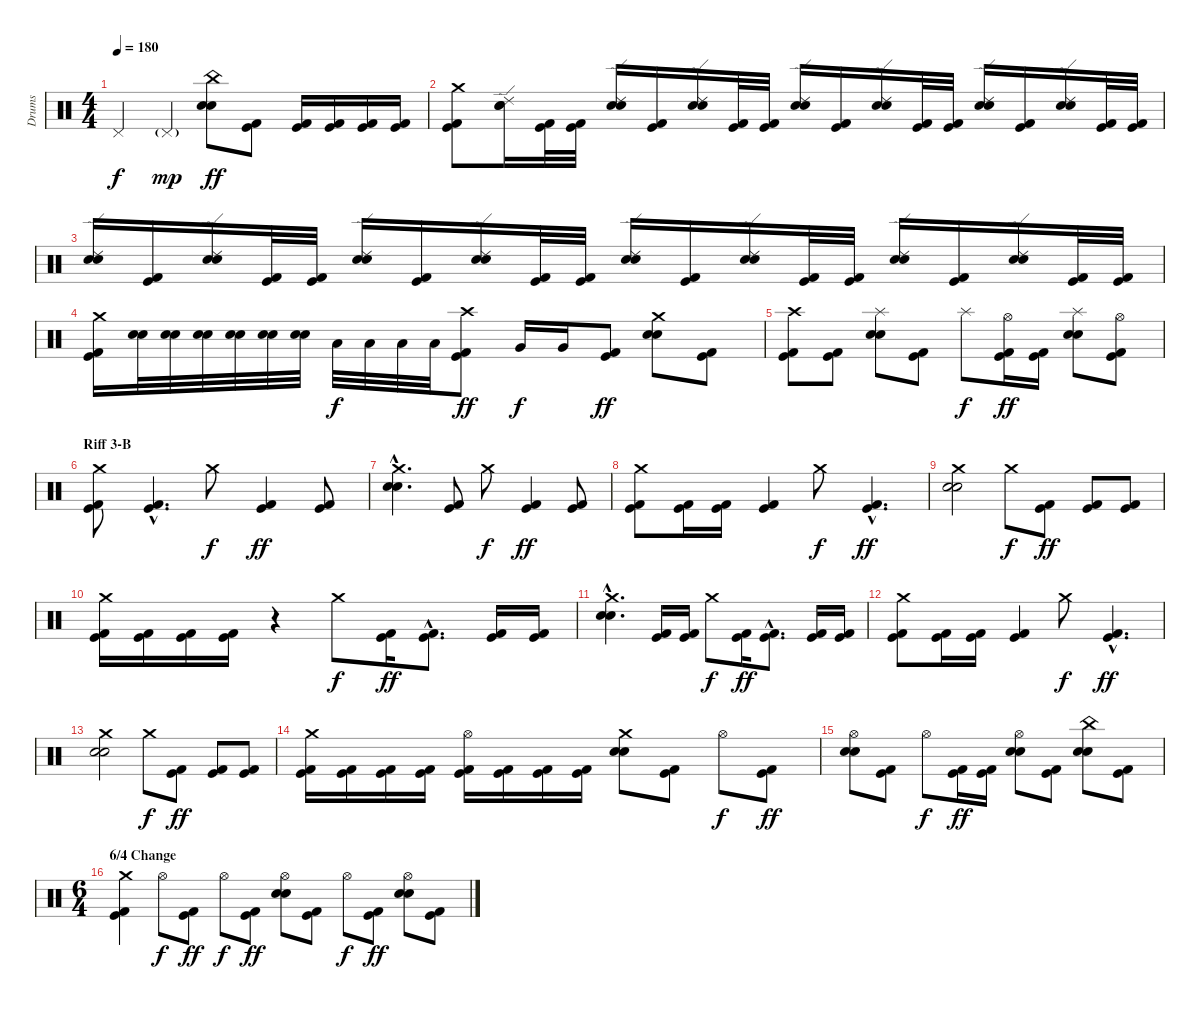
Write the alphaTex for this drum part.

\track ("Drums" "Drums") {instrument percussion}
\staff {score}
\articulation defaults
\ts (4 4)
\tempo 180
\clef neutral
\ks c "Pedal Hi-Hat (hit)".4{dy f} "Pedal Hi-Hat (hit)"{g}.4{dy mp}
("Electric Snare (hit)" "Electric Snare (hit)" "China (hit)").8{dy ff} ("Kick (hit)" "Kick (hit) 2").8 ("Kick (hit)" "Kick (hit) 2").16 ("Kick (hit)" "Kick (hit) 2").16 ("Kick (hit)" "Kick (hit) 2").16 ("Kick (hit)" "Kick (hit) 2").16 |
("Kick (hit)" "Kick (hit) 2" "Crash medium (hit)").8 ("Electric Snare (hit)" "Electric Snare (hit)" "Ride (edge) 2").16 ("Kick (hit)" "Kick (hit) 2").32 ("Kick (hit)" "Kick (hit) 2").32 ("Electric Snare (hit)" "Electric Snare (hit)" "Ride (edge) 2").16 ("Kick (hit)" "Kick (hit) 2").16 ("Electric Snare (hit)" "Electric Snare (hit)" "Ride (edge) 2").16 ("Kick (hit)" "Kick (hit) 2").32 ("Kick (hit)" "Kick (hit) 2").32 ("Electric Snare (hit)" "Electric Snare (hit)" "Ride (edge) 2").16 ("Kick (hit)" "Kick (hit) 2").16 ("Electric Snare (hit)" "Electric Snare (hit)" "Ride (edge) 2").16 ("Kick (hit)" "Kick (hit) 2").32 ("Kick (hit)" "Kick (hit) 2").32 ("Electric Snare (hit)" "Electric Snare (hit)" "Ride (edge) 2").16 ("Kick (hit)" "Kick (hit) 2").16 ("Electric Snare (hit)" "Electric Snare (hit)" "Ride (edge) 2").16 ("Kick (hit)" "Kick (hit) 2").32 ("Kick (hit)" "Kick (hit) 2").32 |
("Electric Snare (hit)" "Electric Snare (hit)" "Ride (edge) 2").16 ("Kick (hit)" "Kick (hit) 2").16 ("Electric Snare (hit)" "Electric Snare (hit)" "Ride (edge) 2").16 ("Kick (hit)" "Kick (hit) 2").32 ("Kick (hit)" "Kick (hit) 2").32 ("Electric Snare (hit)" "Electric Snare (hit)" "Ride (edge) 2").16 ("Kick (hit)" "Kick (hit) 2").16 ("Electric Snare (hit)" "Electric Snare (hit)" "Ride (edge) 2").16 ("Kick (hit)" "Kick (hit) 2").32 ("Kick (hit)" "Kick (hit) 2").32 ("Electric Snare (hit)" "Electric Snare (hit)" "Ride (edge) 2").16 ("Kick (hit)" "Kick (hit) 2").16 ("Electric Snare (hit)" "Electric Snare (hit)" "Ride (edge) 2").16 ("Kick (hit)" "Kick (hit) 2").32 ("Kick (hit)" "Kick (hit) 2").32 ("Electric Snare (hit)" "Electric Snare (hit)" "Ride (edge) 2").16 ("Kick (hit)" "Kick (hit) 2").16 ("Electric Snare (hit)" "Electric Snare (hit)" "Ride (edge) 2").16 ("Kick (hit)" "Kick (hit) 2").32 ("Kick (hit)" "Kick (hit) 2").32 |
("Kick (hit)" "Kick (hit) 2" "Crash medium (hit)").16 ("Electric Snare (hit)" "Electric Snare (hit)").32 ("Electric Snare (hit)" "Electric Snare (hit)").32 ("Electric Snare (hit)" "Electric Snare (hit)").32 ("Electric Snare (hit)" "Electric Snare (hit)").32 ("Electric Snare (hit)" "Electric Snare (hit)").32 ("Electric Snare (hit)" "Electric Snare (hit)").32 "Low Tom (hit)".32{dy f} "Low Tom (hit)".32 "Low Tom (hit)".32 "Low Tom (hit)".32 ("Kick (hit)" "Kick (hit) 2" "Crash high (hit)").8{dy ff} "Very Low Tom (hit)".16{dy f} "Very Low Tom (hit)".16 ("Kick (hit)" "Kick (hit) 2").8{dy ff} ("Electric Snare (hit)" "Electric Snare (hit)" "Crash medium (hit)").8 ("Kick (hit)" "Kick (hit) 2").8 |
("Kick (hit)" "Kick (hit) 2" "Crash high (hit)").8 ("Kick (hit)" "Kick (hit) 2").8 ("Electric Snare (hit)" "Electric Snare (hit)" "Splash (hit)").8 ("Kick (hit)" "Kick (hit) 2").8 "Splash (hit)".8{dy f} ("Kick (hit)" "Kick (hit) 2" "Hi-Hat (open)").16{dy ff} ("Kick (hit)" "Kick (hit) 2").16 ("Electric Snare (hit)" "Electric Snare (hit)" "Splash (hit)").8 ("Kick (hit)" "Kick (hit) 2" "Hi-Hat (open)").8 |
\section ("" "Riff 3-B")
("Kick (hit)" "Kick (hit) 2" "Crash medium (hit)").8 ("Kick (hit)"{hac} "Kick (hit) 2"{hac}).4{d} "Crash medium (hit)".8{dy f} ("Kick (hit)" "Kick (hit) 2").4{dy ff} ("Kick (hit)" "Kick (hit) 2").8 |
("Electric Snare (hit)"{hac} "Electric Snare (hit)"{hac} "Crash medium (hit)"{hac}).4{d} ("Kick (hit)" "Kick (hit) 2").8 "Crash medium (hit)".8{dy f} ("Kick (hit)" "Kick (hit) 2").4{dy ff} ("Kick (hit)" "Kick (hit) 2").8 |
("Kick (hit)" "Kick (hit) 2" "Crash medium (hit)").8 ("Kick (hit)" "Kick (hit) 2").16 ("Kick (hit)" "Kick (hit) 2").16 ("Kick (hit)" "Kick (hit) 2").4 "Crash medium (hit)".8{dy f} ("Kick (hit)"{hac} "Kick (hit) 2"{hac}).4{d dy ff} |
("Electric Snare (hit)" "Electric Snare (hit)" "Crash medium (hit)").2 "Crash medium (hit)".8{dy f} ("Kick (hit)" "Kick (hit) 2").8{dy ff} ("Kick (hit)" "Kick (hit) 2").8 ("Kick (hit)" "Kick (hit) 2").8 |
("Kick (hit)" "Kick (hit) 2" "Crash medium (hit)").16 ("Kick (hit)" "Kick (hit) 2").16 ("Kick (hit)" "Kick (hit) 2").16 ("Kick (hit)" "Kick (hit) 2").16 r.4 "Crash medium (hit)".8{dy f} ("Kick (hit)" "Kick (hit) 2").16{dy ff} ("Kick (hit)"{hac} "Kick (hit) 2"{hac}).8{d} ("Kick (hit)" "Kick (hit) 2").16 ("Kick (hit)" "Kick (hit) 2").16 |
("Electric Snare (hit)"{hac} "Electric Snare (hit)"{hac} "Crash medium (hit)"{hac}).4{d} ("Kick (hit)" "Kick (hit) 2").16 ("Kick (hit)" "Kick (hit) 2").16 "Crash medium (hit)".8{dy f} ("Kick (hit)" "Kick (hit) 2").16{dy ff} ("Kick (hit)"{hac} "Kick (hit) 2"{hac}).8{d} ("Kick (hit)" "Kick (hit) 2").16 ("Kick (hit)" "Kick (hit) 2").16 |
("Kick (hit)" "Kick (hit) 2" "Crash medium (hit)").8 ("Kick (hit)" "Kick (hit) 2").16 ("Kick (hit)" "Kick (hit) 2").16 ("Kick (hit)" "Kick (hit) 2").4 "Crash medium (hit)".8{dy f} ("Kick (hit)"{hac} "Kick (hit) 2"{hac}).4{d dy ff} |
("Electric Snare (hit)" "Electric Snare (hit)" "Crash medium (hit)").2 "Crash medium (hit)".8{dy f} ("Kick (hit)" "Kick (hit) 2").8{dy ff} ("Kick (hit)" "Kick (hit) 2").8 ("Kick (hit)" "Kick (hit) 2").8 |
("Kick (hit)" "Kick (hit) 2" "Crash medium (hit)").16 ("Kick (hit)" "Kick (hit) 2").16 ("Kick (hit)" "Kick (hit) 2").16 ("Kick (hit)" "Kick (hit) 2").16 ("Kick (hit)" "Kick (hit) 2" "Hi-Hat (open)").16 ("Kick (hit)" "Kick (hit) 2").16 ("Kick (hit)" "Kick (hit) 2").16 ("Kick (hit)" "Kick (hit) 2").16 ("Electric Snare (hit)" "Electric Snare (hit)" "Crash medium (hit)").8 ("Kick (hit)" "Kick (hit) 2").8 "Hi-Hat (open)".8{dy f} ("Kick (hit)" "Kick (hit) 2").8{dy ff} |
("Electric Snare (hit)" "Electric Snare (hit)" "Hi-Hat (open)").8 ("Kick (hit)" "Kick (hit) 2").8 "Hi-Hat (open)".8{dy f} ("Kick (hit)" "Kick (hit) 2").16{dy ff} ("Kick (hit)" "Kick (hit) 2").16 ("Electric Snare (hit)" "Electric Snare (hit)" "Hi-Hat (open)").8 ("Kick (hit)" "Kick (hit) 2").8 ("Electric Snare (hit)" "Electric Snare (hit)" "China (hit)").8 ("Kick (hit)" "Kick (hit) 2").8 |
\ts (6 4)
\section ("" "6/4 Change")
("Kick (hit)" "Kick (hit) 2" "Crash medium (hit)").4 "Hi-Hat (open)".8{dy f} ("Kick (hit)" "Kick (hit) 2").8{dy ff} "Hi-Hat (open)".8{dy f} ("Kick (hit)" "Kick (hit) 2").8{dy ff} ("Electric Snare (hit)" "Electric Snare (hit)" "Hi-Hat (open)").8 ("Kick (hit)" "Kick (hit) 2").8 "Hi-Hat (open)".8{dy f} ("Kick (hit)" "Kick (hit) 2").8{dy ff} ("Electric Snare (hit)" "Electric Snare (hit)" "Hi-Hat (open)").8 ("Kick (hit)" "Kick (hit) 2").8
